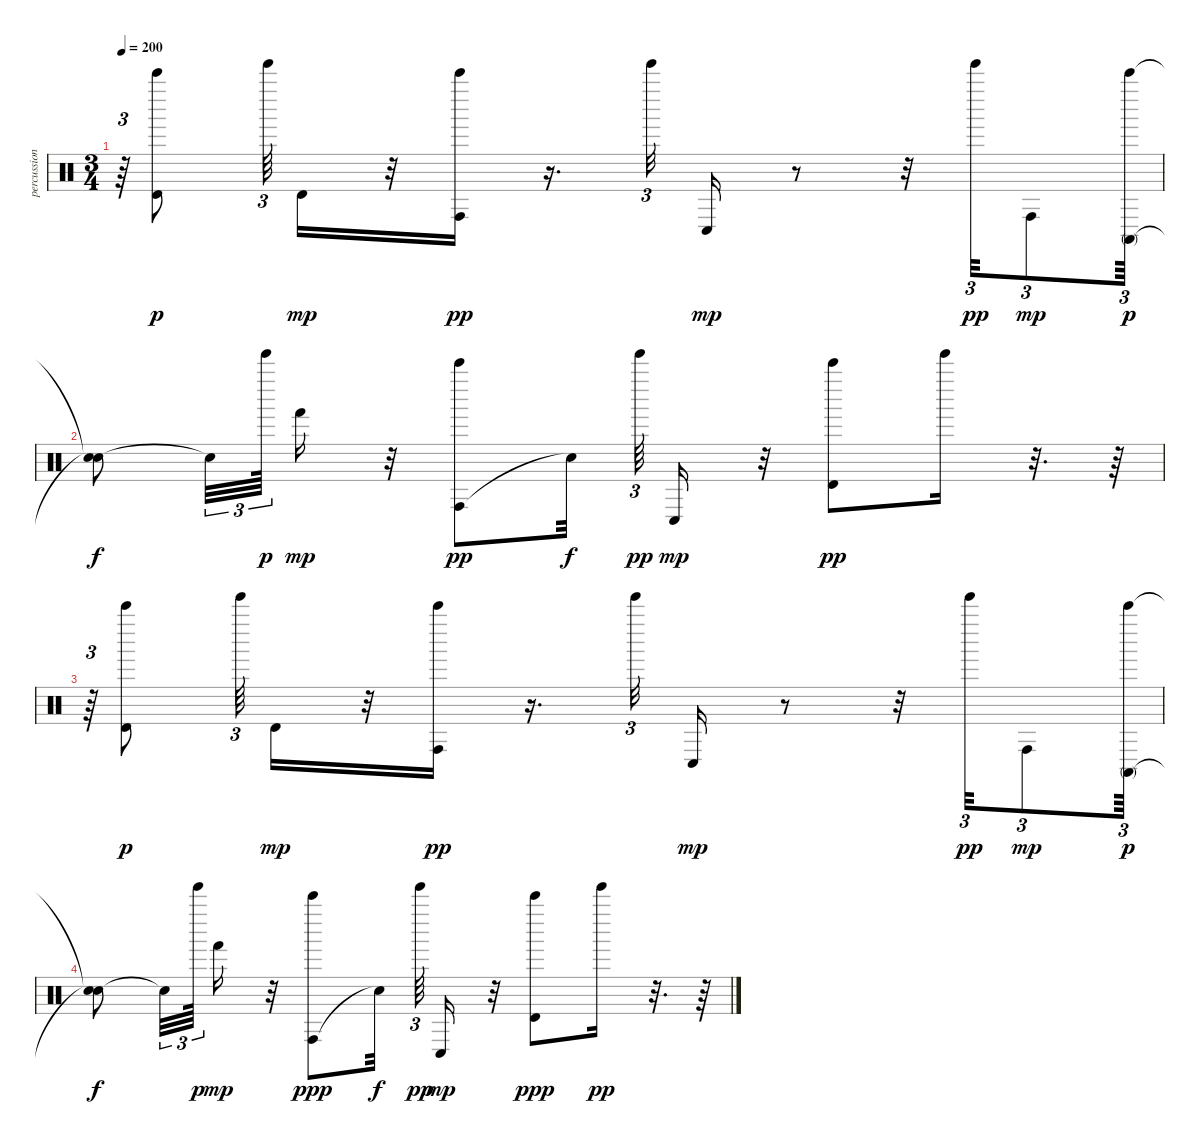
\track ("percussion" "percussion") {instrument percussion}
\staff {score}
\articulation defaults
\ts (3 4)
\tempo 200
\clef neutral
\ks c
r.64{tu (3 2) dy pp} ("Timbale high (hit)" "Bell Tree (hit)").8{dy p} "Tinkle Bell (hit)".64{tu (3 2)} "Timbale high (hit)".16{dy mp} r.32 ("Conga high (hit)" "Bell Tree (hit)").16{dy pp} r.16{d} "Tinkle Bell (hit)".32{tu (3 2)} "Conga low (hit)".16{dy mp} r.8 r.32 "Tinkle Bell (hit)".32{tu (3 2) dy pp} "Conga high (hit)".8{tu (3 2) dy mp} ("Conga high (mute)" "Bell Tree (hit)").64{tu (3 2) dy p} |
("Snare (hit)"{t} "Snare (hit)"{t}).8{dy f} "Snare (hit)"{t}.32{tu (3 2)} "Tinkle Bell (hit)".64{tu (3 2) dy p} "Hand (hit)".16{dy mp} r.32 ("Conga high (hit)" "Bell Tree (hit)").8{dy pp} "Snare (hit)"{t}.32{dy f} "Tinkle Bell (hit)".64{tu (3 2) dy pp} "Conga low (hit)".16{dy mp} r.32 ("Timbale high (hit)" "Bell Tree (hit)").8{dy pp} "Tinkle Bell (hit)".16 r.32{d} r.64 |
r.64{tu (3 2)} ("Timbale high (hit)" "Bell Tree (hit)").8{dy p} "Tinkle Bell (hit)".64{tu (3 2)} "Timbale high (hit)".16{dy mp} r.32 ("Conga high (hit)" "Bell Tree (hit)").16{dy pp} r.16{d} "Tinkle Bell (hit)".32{tu (3 2)} "Conga low (hit)".16{dy mp} r.8 r.32 "Tinkle Bell (hit)".32{tu (3 2) dy pp} "Conga high (hit)".8{tu (3 2) dy mp} ("Conga high (mute)" "Bell Tree (hit)").64{tu (3 2) dy p} |
("Snare (hit)"{t} "Snare (hit)"{t}).8{dy f} "Snare (hit)"{t}.32{tu (3 2)} "Tinkle Bell (hit)".64{tu (3 2) dy p} "Hand (hit)".16{dy mp} r.32 ("Conga high (hit)" "Bell Tree (hit)").8{dy ppp} "Snare (hit)"{t}.32{dy f} "Tinkle Bell (hit)".64{tu (3 2) dy pp} "Conga low (hit)".16{dy mp} r.32 ("Timbale high (hit)" "Bell Tree (hit)").8{dy ppp} "Tinkle Bell (hit)".16{dy pp} r.32{d} r.64
